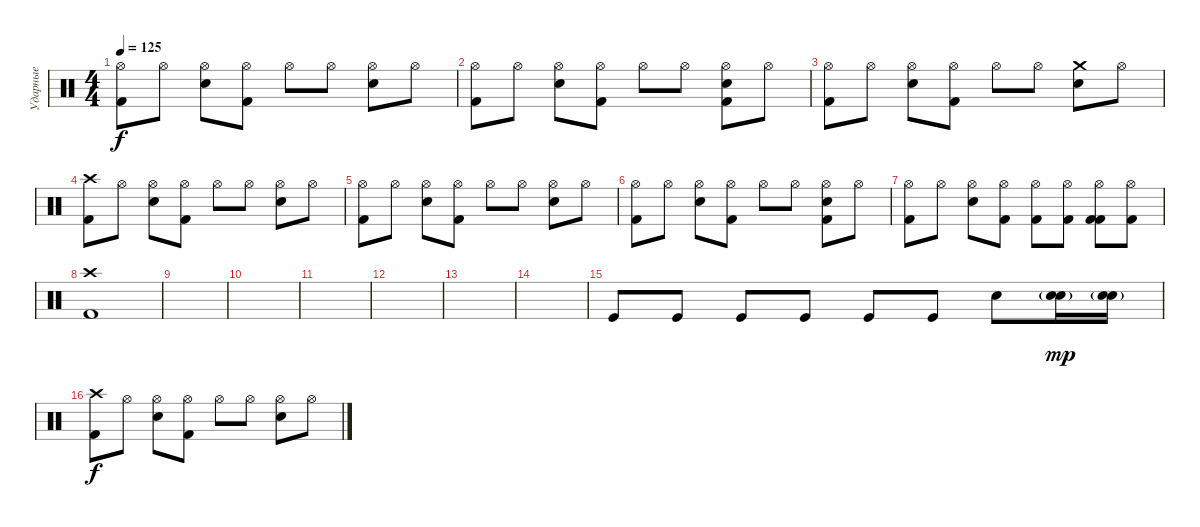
\track ("Ударные" "Ударные") {instrument percussion}
\staff {score}
\articulation defaults
\ts (4 4)
\tempo 125
\clef neutral
\ks c
("Hi-Hat (open)" "Kick (hit) 2").8{dy f} "Hi-Hat (open)".8 ("Hi-Hat (open)" "Snare (hit) 2").8 ("Hi-Hat (open)" "Kick (hit) 2").8 "Hi-Hat (open)".8 "Hi-Hat (open)".8 ("Hi-Hat (open)" "Snare (hit) 2").8 "Hi-Hat (open)".8 |
("Hi-Hat (open)" "Kick (hit) 2").8 "Hi-Hat (open)".8 ("Hi-Hat (open)" "Snare (hit) 2").8 ("Hi-Hat (open)" "Kick (hit) 2").8 "Hi-Hat (open)".8 "Hi-Hat (open)".8 ("Hi-Hat (open)" "Snare (hit) 2" "Kick (hit) 2").8 "Hi-Hat (open)".8 |
("Hi-Hat (open)" "Kick (hit) 2").8 "Hi-Hat (open)".8 ("Hi-Hat (open)" "Snare (hit) 2").8 ("Hi-Hat (open)" "Kick (hit) 2").8 "Hi-Hat (open)".8 "Hi-Hat (open)".8 ("Crash medium (hit)" "Snare (hit) 2").8 "Hi-Hat (open)".8 |
("Crash high (hit)" "Kick (hit) 2").8 "Hi-Hat (open)".8 ("Hi-Hat (open)" "Snare (hit) 2").8 ("Hi-Hat (open)" "Kick (hit) 2").8 "Hi-Hat (open)".8 "Hi-Hat (open)".8 ("Hi-Hat (open)" "Snare (hit) 2").8 "Hi-Hat (open)".8 |
("Hi-Hat (open)" "Kick (hit) 2").8 "Hi-Hat (open)".8 ("Hi-Hat (open)" "Snare (hit) 2").8 ("Hi-Hat (open)" "Kick (hit) 2").8 "Hi-Hat (open)".8 "Hi-Hat (open)".8 ("Hi-Hat (open)" "Snare (hit) 2").8 "Hi-Hat (open)".8 |
("Hi-Hat (open)" "Kick (hit) 2").8 "Hi-Hat (open)".8 ("Hi-Hat (open)" "Snare (hit) 2").8 ("Hi-Hat (open)" "Kick (hit) 2").8 "Hi-Hat (open)".8 "Hi-Hat (open)".8 ("Hi-Hat (open)" "Snare (hit) 2" "Kick (hit) 2").8 "Hi-Hat (open)".8 |
("Hi-Hat (open)" "Kick (hit) 2").8 "Hi-Hat (open)".8 ("Hi-Hat (open)" "Snare (hit) 2").8 ("Hi-Hat (open)" "Kick (hit) 2").8 ("Hi-Hat (open)" "Kick (hit) 2").8 ("Hi-Hat (open)" "Kick (hit) 2").8 ("Hi-Hat (open)" "Kick (hit) 2" "Kick (hit) 2").8 ("Hi-Hat (open)" "Kick (hit) 2").8 |
("Crash high (hit)" "Kick (hit) 2").1 |
|
|
|
|
|
|
"Kick (hit)".8 "Kick (hit)".8 "Kick (hit)".8 "Kick (hit)".8 "Kick (hit)".8 "Kick (hit)".8 "Electric Snare (hit)".8 ("Electric Snare (hit)"{g} "Electric Snare (hit)"{g}).16{dy mp} ("Electric Snare (hit)"{g} "Electric Snare (hit)"{g}).16 |
("Crash high (hit)" "Kick (hit) 2").8{dy f} "Hi-Hat (open)".8 ("Hi-Hat (open)" "Snare (hit) 2").8 ("Hi-Hat (open)" "Kick (hit) 2").8 "Hi-Hat (open)".8 "Hi-Hat (open)".8 ("Hi-Hat (open)" "Snare (hit) 2").8 "Hi-Hat (open)".8
